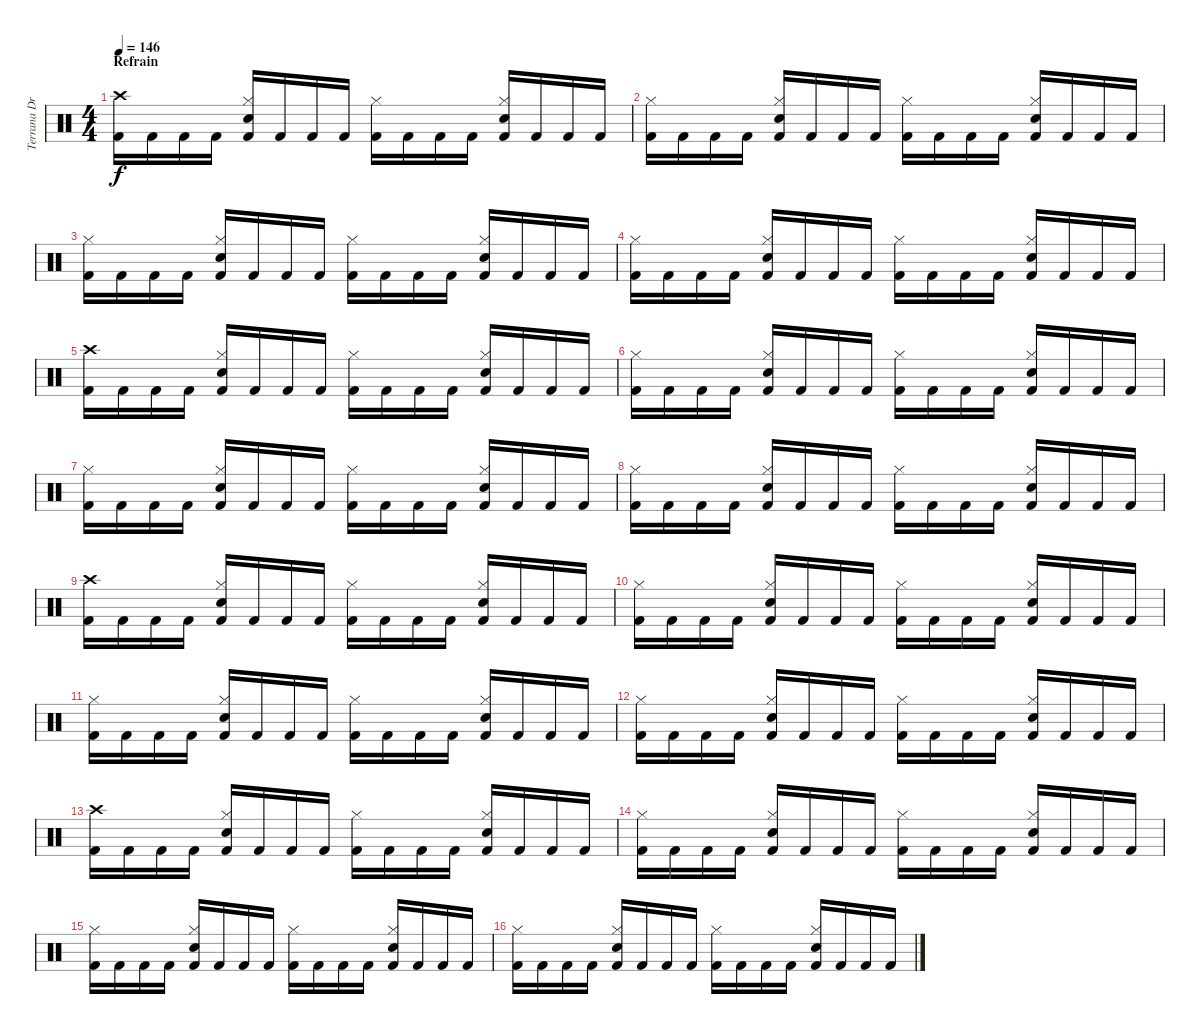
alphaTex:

\track ("Terrana Drums" "Terrana Dr") {instrument percussion}
\staff {score}
\articulation defaults
\ts (4 4)
\section ("" "Refrain")
\tempo 146
\clef neutral
\ks c
("Crash high (hit)" "Kick (hit) 2").16{dy f} "Kick (hit) 2".16 "Kick (hit) 2".16 "Kick (hit) 2".16 ("Hi-Hat (closed)" "Electric Snare (hit)" "Kick (hit) 2").16 "Kick (hit) 2".16 "Kick (hit) 2".16 "Kick (hit) 2".16 ("Hi-Hat (closed)" "Kick (hit) 2").16 "Kick (hit) 2".16 "Kick (hit) 2".16 "Kick (hit) 2".16 ("Hi-Hat (closed)" "Electric Snare (hit)" "Kick (hit) 2").16 "Kick (hit) 2".16 "Kick (hit) 2".16 "Kick (hit) 2".16 |
("Hi-Hat (closed)" "Kick (hit) 2").16 "Kick (hit) 2".16 "Kick (hit) 2".16 "Kick (hit) 2".16 ("Hi-Hat (closed)" "Electric Snare (hit)" "Kick (hit) 2").16 "Kick (hit) 2".16 "Kick (hit) 2".16 "Kick (hit) 2".16 ("Hi-Hat (closed)" "Kick (hit) 2").16 "Kick (hit) 2".16 "Kick (hit) 2".16 "Kick (hit) 2".16 ("Hi-Hat (closed)" "Electric Snare (hit)" "Kick (hit) 2").16 "Kick (hit) 2".16 "Kick (hit) 2".16 "Kick (hit) 2".16 |
("Hi-Hat (closed)" "Kick (hit) 2").16 "Kick (hit) 2".16 "Kick (hit) 2".16 "Kick (hit) 2".16 ("Hi-Hat (closed)" "Electric Snare (hit)" "Kick (hit) 2").16 "Kick (hit) 2".16 "Kick (hit) 2".16 "Kick (hit) 2".16 ("Hi-Hat (closed)" "Kick (hit) 2").16 "Kick (hit) 2".16 "Kick (hit) 2".16 "Kick (hit) 2".16 ("Hi-Hat (closed)" "Electric Snare (hit)" "Kick (hit) 2").16 "Kick (hit) 2".16 "Kick (hit) 2".16 "Kick (hit) 2".16 |
("Hi-Hat (closed)" "Kick (hit) 2").16 "Kick (hit) 2".16 "Kick (hit) 2".16 "Kick (hit) 2".16 ("Hi-Hat (closed)" "Electric Snare (hit)" "Kick (hit) 2").16 "Kick (hit) 2".16 "Kick (hit) 2".16 "Kick (hit) 2".16 ("Hi-Hat (closed)" "Kick (hit) 2").16 "Kick (hit) 2".16 "Kick (hit) 2".16 "Kick (hit) 2".16 ("Hi-Hat (closed)" "Electric Snare (hit)" "Kick (hit) 2").16 "Kick (hit) 2".16 "Kick (hit) 2".16 "Kick (hit) 2".16 |
("Crash high (hit)" "Kick (hit) 2").16 "Kick (hit) 2".16 "Kick (hit) 2".16 "Kick (hit) 2".16 ("Hi-Hat (closed)" "Electric Snare (hit)" "Kick (hit) 2").16 "Kick (hit) 2".16 "Kick (hit) 2".16 "Kick (hit) 2".16 ("Hi-Hat (closed)" "Kick (hit) 2").16 "Kick (hit) 2".16 "Kick (hit) 2".16 "Kick (hit) 2".16 ("Hi-Hat (closed)" "Electric Snare (hit)" "Kick (hit) 2").16 "Kick (hit) 2".16 "Kick (hit) 2".16 "Kick (hit) 2".16 |
("Hi-Hat (closed)" "Kick (hit) 2").16 "Kick (hit) 2".16 "Kick (hit) 2".16 "Kick (hit) 2".16 ("Hi-Hat (closed)" "Electric Snare (hit)" "Kick (hit) 2").16 "Kick (hit) 2".16 "Kick (hit) 2".16 "Kick (hit) 2".16 ("Hi-Hat (closed)" "Kick (hit) 2").16 "Kick (hit) 2".16 "Kick (hit) 2".16 "Kick (hit) 2".16 ("Hi-Hat (closed)" "Electric Snare (hit)" "Kick (hit) 2").16 "Kick (hit) 2".16 "Kick (hit) 2".16 "Kick (hit) 2".16 |
("Hi-Hat (closed)" "Kick (hit) 2").16 "Kick (hit) 2".16 "Kick (hit) 2".16 "Kick (hit) 2".16 ("Hi-Hat (closed)" "Electric Snare (hit)" "Kick (hit) 2").16 "Kick (hit) 2".16 "Kick (hit) 2".16 "Kick (hit) 2".16 ("Hi-Hat (closed)" "Kick (hit) 2").16 "Kick (hit) 2".16 "Kick (hit) 2".16 "Kick (hit) 2".16 ("Hi-Hat (closed)" "Electric Snare (hit)" "Kick (hit) 2").16 "Kick (hit) 2".16 "Kick (hit) 2".16 "Kick (hit) 2".16 |
("Hi-Hat (closed)" "Kick (hit) 2").16 "Kick (hit) 2".16 "Kick (hit) 2".16 "Kick (hit) 2".16 ("Hi-Hat (closed)" "Electric Snare (hit)" "Kick (hit) 2").16 "Kick (hit) 2".16 "Kick (hit) 2".16 "Kick (hit) 2".16 ("Hi-Hat (closed)" "Kick (hit) 2").16 "Kick (hit) 2".16 "Kick (hit) 2".16 "Kick (hit) 2".16 ("Hi-Hat (closed)" "Electric Snare (hit)" "Kick (hit) 2").16 "Kick (hit) 2".16 "Kick (hit) 2".16 "Kick (hit) 2".16 |
("Crash high (hit)" "Kick (hit) 2").16 "Kick (hit) 2".16 "Kick (hit) 2".16 "Kick (hit) 2".16 ("Hi-Hat (closed)" "Electric Snare (hit)" "Kick (hit) 2").16 "Kick (hit) 2".16 "Kick (hit) 2".16 "Kick (hit) 2".16 ("Hi-Hat (closed)" "Kick (hit) 2").16 "Kick (hit) 2".16 "Kick (hit) 2".16 "Kick (hit) 2".16 ("Hi-Hat (closed)" "Electric Snare (hit)" "Kick (hit) 2").16 "Kick (hit) 2".16 "Kick (hit) 2".16 "Kick (hit) 2".16 |
("Hi-Hat (closed)" "Kick (hit) 2").16 "Kick (hit) 2".16 "Kick (hit) 2".16 "Kick (hit) 2".16 ("Hi-Hat (closed)" "Electric Snare (hit)" "Kick (hit) 2").16 "Kick (hit) 2".16 "Kick (hit) 2".16 "Kick (hit) 2".16 ("Hi-Hat (closed)" "Kick (hit) 2").16 "Kick (hit) 2".16 "Kick (hit) 2".16 "Kick (hit) 2".16 ("Hi-Hat (closed)" "Electric Snare (hit)" "Kick (hit) 2").16 "Kick (hit) 2".16 "Kick (hit) 2".16 "Kick (hit) 2".16 |
("Hi-Hat (closed)" "Kick (hit) 2").16 "Kick (hit) 2".16 "Kick (hit) 2".16 "Kick (hit) 2".16 ("Hi-Hat (closed)" "Electric Snare (hit)" "Kick (hit) 2").16 "Kick (hit) 2".16 "Kick (hit) 2".16 "Kick (hit) 2".16 ("Hi-Hat (closed)" "Kick (hit) 2").16 "Kick (hit) 2".16 "Kick (hit) 2".16 "Kick (hit) 2".16 ("Hi-Hat (closed)" "Electric Snare (hit)" "Kick (hit) 2").16 "Kick (hit) 2".16 "Kick (hit) 2".16 "Kick (hit) 2".16 |
("Hi-Hat (closed)" "Kick (hit) 2").16 "Kick (hit) 2".16 "Kick (hit) 2".16 "Kick (hit) 2".16 ("Hi-Hat (closed)" "Electric Snare (hit)" "Kick (hit) 2").16 "Kick (hit) 2".16 "Kick (hit) 2".16 "Kick (hit) 2".16 ("Hi-Hat (closed)" "Kick (hit) 2").16 "Kick (hit) 2".16 "Kick (hit) 2".16 "Kick (hit) 2".16 ("Hi-Hat (closed)" "Electric Snare (hit)" "Kick (hit) 2").16 "Kick (hit) 2".16 "Kick (hit) 2".16 "Kick (hit) 2".16 |
("Crash high (hit)" "Kick (hit) 2").16 "Kick (hit) 2".16 "Kick (hit) 2".16 "Kick (hit) 2".16 ("Hi-Hat (closed)" "Electric Snare (hit)" "Kick (hit) 2").16 "Kick (hit) 2".16 "Kick (hit) 2".16 "Kick (hit) 2".16 ("Hi-Hat (closed)" "Kick (hit) 2").16 "Kick (hit) 2".16 "Kick (hit) 2".16 "Kick (hit) 2".16 ("Hi-Hat (closed)" "Electric Snare (hit)" "Kick (hit) 2").16 "Kick (hit) 2".16 "Kick (hit) 2".16 "Kick (hit) 2".16 |
("Hi-Hat (closed)" "Kick (hit) 2").16 "Kick (hit) 2".16 "Kick (hit) 2".16 "Kick (hit) 2".16 ("Hi-Hat (closed)" "Electric Snare (hit)" "Kick (hit) 2").16 "Kick (hit) 2".16 "Kick (hit) 2".16 "Kick (hit) 2".16 ("Hi-Hat (closed)" "Kick (hit) 2").16 "Kick (hit) 2".16 "Kick (hit) 2".16 "Kick (hit) 2".16 ("Hi-Hat (closed)" "Electric Snare (hit)" "Kick (hit) 2").16 "Kick (hit) 2".16 "Kick (hit) 2".16 "Kick (hit) 2".16 |
("Hi-Hat (closed)" "Kick (hit) 2").16 "Kick (hit) 2".16 "Kick (hit) 2".16 "Kick (hit) 2".16 ("Hi-Hat (closed)" "Electric Snare (hit)" "Kick (hit) 2").16 "Kick (hit) 2".16 "Kick (hit) 2".16 "Kick (hit) 2".16 ("Hi-Hat (closed)" "Kick (hit) 2").16 "Kick (hit) 2".16 "Kick (hit) 2".16 "Kick (hit) 2".16 ("Hi-Hat (closed)" "Electric Snare (hit)" "Kick (hit) 2").16 "Kick (hit) 2".16 "Kick (hit) 2".16 "Kick (hit) 2".16 |
("Hi-Hat (closed)" "Kick (hit) 2").16 "Kick (hit) 2".16 "Kick (hit) 2".16 "Kick (hit) 2".16 ("Hi-Hat (closed)" "Electric Snare (hit)" "Kick (hit) 2").16 "Kick (hit) 2".16 "Kick (hit) 2".16 "Kick (hit) 2".16 ("Hi-Hat (closed)" "Kick (hit) 2").16 "Kick (hit) 2".16 "Kick (hit) 2".16 "Kick (hit) 2".16 ("Hi-Hat (closed)" "Electric Snare (hit)" "Kick (hit) 2").16 "Kick (hit) 2".16 "Kick (hit) 2".16 "Kick (hit) 2".16
